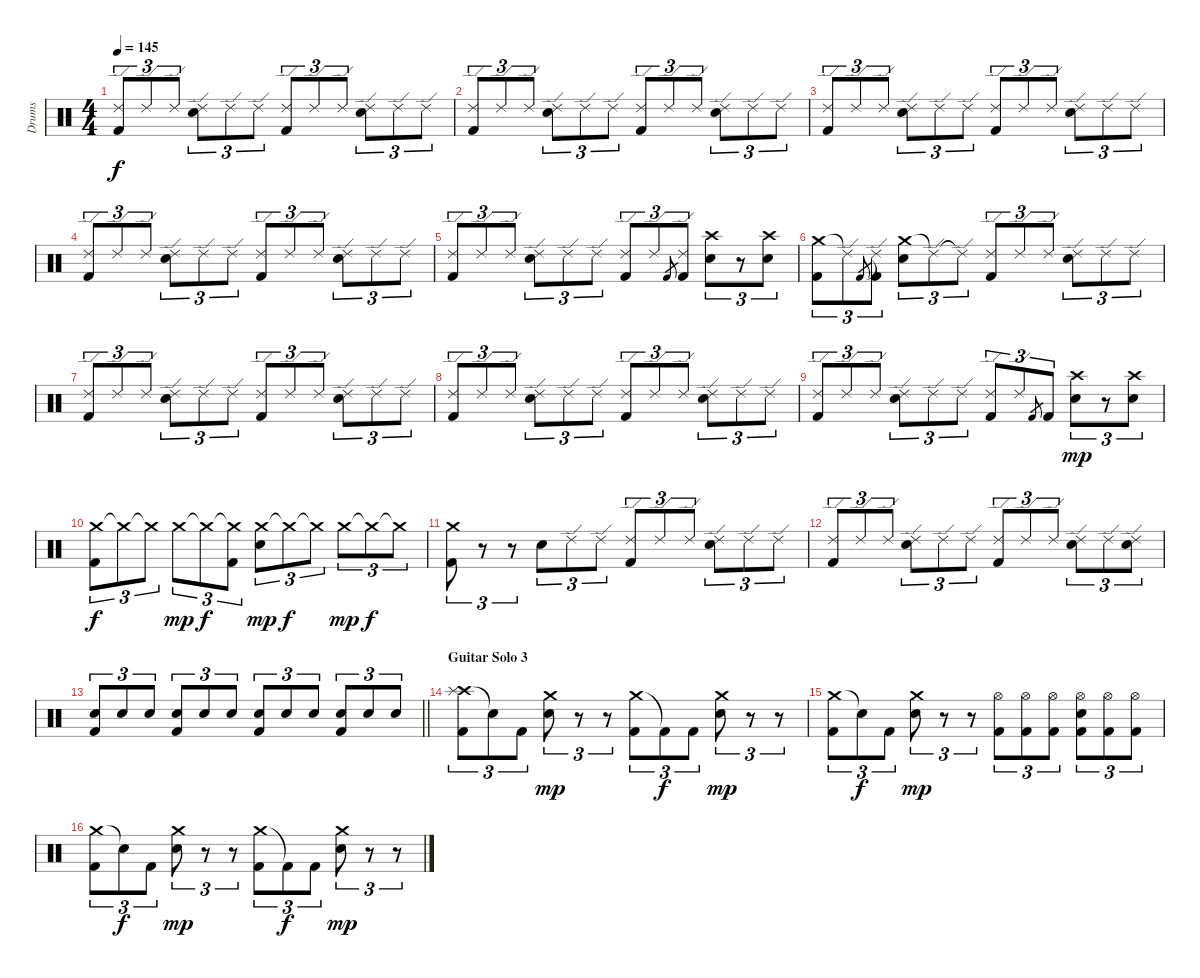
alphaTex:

\track ("Drums" "Drums") {instrument percussion}
\staff {score}
\articulation defaults
\ts (4 4)
\tempo 145
\clef neutral
\ks c
("Ride (edge) 2" "Kick (hit) 2").8{tu (3 2) dy f} "Ride (edge) 2".8{tu (3 2)} "Ride (edge) 2".8{tu (3 2)} ("Ride (edge) 2" "Snare (hit) 2").8{tu (3 2)} "Ride (edge) 2".8{tu (3 2)} "Ride (edge) 2".8{tu (3 2)} ("Ride (edge) 2" "Kick (hit) 2").8{tu (3 2)} "Ride (edge) 2".8{tu (3 2)} "Ride (edge) 2".8{tu (3 2)} ("Ride (edge) 2" "Snare (hit) 2").8{tu (3 2)} "Ride (edge) 2".8{tu (3 2)} "Ride (edge) 2".8{tu (3 2)} |
("Ride (edge) 2" "Kick (hit) 2").8{tu (3 2)} "Ride (edge) 2".8{tu (3 2)} "Ride (edge) 2".8{tu (3 2)} ("Ride (edge) 2" "Snare (hit) 2").8{tu (3 2)} "Ride (edge) 2".8{tu (3 2)} "Ride (edge) 2".8{tu (3 2)} ("Ride (edge) 2" "Kick (hit) 2").8{tu (3 2)} "Ride (edge) 2".8{tu (3 2)} "Ride (edge) 2".8{tu (3 2)} ("Ride (edge) 2" "Snare (hit) 2").8{tu (3 2)} "Ride (edge) 2".8{tu (3 2)} "Ride (edge) 2".8{tu (3 2)} |
("Ride (edge) 2" "Kick (hit) 2").8{tu (3 2)} "Ride (edge) 2".8{tu (3 2)} "Ride (edge) 2".8{tu (3 2)} ("Ride (edge) 2" "Snare (hit) 2").8{tu (3 2)} "Ride (edge) 2".8{tu (3 2)} "Ride (edge) 2".8{tu (3 2)} ("Ride (edge) 2" "Kick (hit) 2").8{tu (3 2)} "Ride (edge) 2".8{tu (3 2)} "Ride (edge) 2".8{tu (3 2)} ("Ride (edge) 2" "Snare (hit) 2").8{tu (3 2)} "Ride (edge) 2".8{tu (3 2)} "Ride (edge) 2".8{tu (3 2)} |
("Ride (edge) 2" "Kick (hit) 2").8{tu (3 2)} "Ride (edge) 2".8{tu (3 2)} "Ride (edge) 2".8{tu (3 2)} ("Ride (edge) 2" "Snare (hit) 2").8{tu (3 2)} "Ride (edge) 2".8{tu (3 2)} "Ride (edge) 2".8{tu (3 2)} ("Ride (edge) 2" "Kick (hit) 2").8{tu (3 2)} "Ride (edge) 2".8{tu (3 2)} "Ride (edge) 2".8{tu (3 2)} ("Ride (edge) 2" "Snare (hit) 2").8{tu (3 2)} "Ride (edge) 2".8{tu (3 2)} "Ride (edge) 2".8{tu (3 2)} |
("Ride (edge) 2" "Kick (hit) 2").8{tu (3 2)} "Ride (edge) 2".8{tu (3 2)} "Ride (edge) 2".8{tu (3 2)} ("Ride (edge) 2" "Snare (hit) 2").8{tu (3 2)} "Ride (edge) 2".8{tu (3 2)} "Ride (edge) 2".8{tu (3 2)} ("Ride (edge) 2" "Kick (hit) 2").8{tu (3 2)} "Ride (edge) 2".8{tu (3 2)} "Kick (hit) 2".8{gr} ("Ride (edge) 2" "Kick (hit) 2").8{tu (3 2)} ("Crash high (hit)" "Snare (hit) 2").8{tu (3 2)} r.8{tu (3 2)} ("Crash high (hit)" "Snare (hit) 2").8{tu (3 2)} |
("Crash medium (hit)" "Kick (hit) 2").8{tu (3 2)} "Ride (edge) 2"{t}.8{tu (3 2)} "Kick (hit) 2".8{gr} ("Ride (edge) 2"{t} "Kick (hit) 2").8{tu (3 2)} ("Crash medium (hit)" "Snare (hit) 2").8{tu (3 2)} "Ride (edge) 2"{t}.8{tu (3 2)} "Ride (edge) 2"{t}.8{tu (3 2)} ("Ride (edge) 2" "Kick (hit) 2").8{tu (3 2)} "Ride (edge) 2".8{tu (3 2)} "Ride (edge) 2".8{tu (3 2)} ("Ride (edge) 2" "Snare (hit) 2").8{tu (3 2)} "Ride (edge) 2".8{tu (3 2)} "Ride (edge) 2".8{tu (3 2)} |
("Ride (edge) 2" "Kick (hit) 2").8{tu (3 2)} "Ride (edge) 2".8{tu (3 2)} "Ride (edge) 2".8{tu (3 2)} ("Ride (edge) 2" "Snare (hit) 2").8{tu (3 2)} "Ride (edge) 2".8{tu (3 2)} "Ride (edge) 2".8{tu (3 2)} ("Ride (edge) 2" "Kick (hit) 2").8{tu (3 2)} "Ride (edge) 2".8{tu (3 2)} "Ride (edge) 2".8{tu (3 2)} ("Ride (edge) 2" "Snare (hit) 2").8{tu (3 2)} "Ride (edge) 2".8{tu (3 2)} "Ride (edge) 2".8{tu (3 2)} |
("Ride (edge) 2" "Kick (hit) 2").8{tu (3 2)} "Ride (edge) 2".8{tu (3 2)} "Ride (edge) 2".8{tu (3 2)} ("Ride (edge) 2" "Snare (hit) 2").8{tu (3 2)} "Ride (edge) 2".8{tu (3 2)} "Ride (edge) 2".8{tu (3 2)} ("Ride (edge) 2" "Kick (hit) 2").8{tu (3 2)} "Ride (edge) 2".8{tu (3 2)} "Ride (edge) 2".8{tu (3 2)} ("Ride (edge) 2" "Snare (hit) 2").8{tu (3 2)} "Ride (edge) 2".8{tu (3 2)} "Ride (edge) 2".8{tu (3 2)} |
("Ride (edge) 2" "Kick (hit) 2").8{tu (3 2)} "Ride (edge) 2".8{tu (3 2)} "Ride (edge) 2".8{tu (3 2)} ("Ride (edge) 2" "Snare (hit) 2").8{tu (3 2)} "Ride (edge) 2".8{tu (3 2)} "Ride (edge) 2".8{tu (3 2)} ("Ride (edge) 2" "Kick (hit) 2").8{tu (3 2)} "Ride (edge) 2".8{tu (3 2)} "Kick (hit) 2".8{gr} "Kick (hit) 2".8{tu (3 2)} ("Crash high (hit)" "Snare (hit) 2").8{tu (3 2) dy mp} r.8{tu (3 2)} ("Crash high (hit)" "Snare (hit) 2").8{tu (3 2)} |
("Crash medium (hit)" "Kick (hit) 2").8{tu (3 2) dy f} "Crash medium (hit)"{t}.8{tu (3 2)} "Crash medium (hit)"{t}.8{tu (3 2)} "Crash medium (hit)".8{tu (3 2) dy mp} "Crash medium (hit)"{t}.8{tu (3 2) dy f} ("Crash medium (hit)"{t} "Kick (hit) 2").8{tu (3 2)} ("Crash medium (hit)" "Snare (hit) 2").8{tu (3 2) dy mp} "Crash medium (hit)"{t}.8{tu (3 2) dy f} "Crash medium (hit)"{t}.8{tu (3 2)} "Crash medium (hit)".8{tu (3 2) dy mp} "Crash medium (hit)"{t}.8{tu (3 2) dy f} "Crash medium (hit)"{t}.8{tu (3 2)} |
("Crash medium (hit)" "Kick (hit) 2").8{tu (3 2)} r.8{tu (3 2)} r.8{tu (3 2)} "Snare (hit) 2".8{tu (3 2)} "Ride (edge) 2".8{tu (3 2)} "Ride (edge) 2".8{tu (3 2)} ("Ride (edge) 2" "Kick (hit) 2").8{tu (3 2)} "Ride (edge) 2".8{tu (3 2)} "Ride (edge) 2".8{tu (3 2)} ("Ride (edge) 2" "Snare (hit) 2").8{tu (3 2)} "Ride (edge) 2".8{tu (3 2)} "Ride (edge) 2".8{tu (3 2)} |
("Ride (edge) 2" "Kick (hit) 2").8{tu (3 2)} "Ride (edge) 2".8{tu (3 2)} "Ride (edge) 2".8{tu (3 2)} ("Ride (edge) 2" "Snare (hit) 2").8{tu (3 2)} "Ride (edge) 2".8{tu (3 2)} "Ride (edge) 2".8{tu (3 2)} ("Ride (edge) 2" "Kick (hit) 2").8{tu (3 2)} "Ride (edge) 2".8{tu (3 2)} "Ride (edge) 2".8{tu (3 2)} ("Ride (edge) 2" "Snare (hit) 2").8{tu (3 2)} "Ride (edge) 2".8{tu (3 2)} ("Ride (edge) 2" "Snare (hit) 2").8{tu (3 2)} |
\barLineRight lightlight
("Snare (hit) 2" "Kick (hit) 2").8{tu (3 2)} "Snare (hit) 2".8{tu (3 2)} "Snare (hit) 2".8{tu (3 2)} ("Snare (hit) 2" "Kick (hit) 2").8{tu (3 2)} "Snare (hit) 2".8{tu (3 2)} "Snare (hit) 2".8{tu (3 2)} ("Snare (hit) 2" "Kick (hit) 2").8{tu (3 2)} "Snare (hit) 2".8{tu (3 2)} "Snare (hit) 2".8{tu (3 2)} ("Snare (hit) 2" "Kick (hit) 2").8{tu (3 2)} "Snare (hit) 2".8{tu (3 2)} "Snare (hit) 2".8{tu (3 2)} |
\section ("" "Guitar Solo 3")
("Crash high (hit)" "Splash (hit)" "Kick (hit) 2").8{tu (3 2)} "Snare (hit)"{t}.8{tu (3 2)} "Kick (hit) 2".8{tu (3 2)} ("Crash medium (hit)" "Snare (hit) 2").8{tu (3 2) dy mp} r.8{tu (3 2)} r.8{tu (3 2)} ("Crash medium (hit)" "Kick (hit) 2").8{tu (3 2)} "Kick (hit) 2"{t}.8{tu (3 2) dy f} "Kick (hit) 2".8{tu (3 2)} ("Crash medium (hit)" "Snare (hit) 2").8{tu (3 2) dy mp} r.8{tu (3 2)} r.8{tu (3 2)} |
("Crash medium (hit)" "Kick (hit) 2").8{tu (3 2)} "Snare (hit)"{t}.8{tu (3 2) dy f} "Kick (hit) 2".8{tu (3 2)} ("Crash medium (hit)" "Snare (hit) 2").8{tu (3 2) dy mp} r.8{tu (3 2)} r.8{tu (3 2)} ("Hi-Hat (open)" "Kick (hit) 2").8{tu (3 2)} ("Hi-Hat (open)" "Kick (hit) 2").8{tu (3 2)} ("Hi-Hat (open)" "Kick (hit) 2").8{tu (3 2)} ("Hi-Hat (open)" "Snare (hit) 2" "Kick (hit) 2").8{tu (3 2)} ("Hi-Hat (open)" "Kick (hit) 2").8{tu (3 2)} ("Hi-Hat (open)" "Kick (hit) 2").8{tu (3 2)} |
("Crash medium (hit)" "Kick (hit) 2").8{tu (3 2)} "Snare (hit)"{t}.8{tu (3 2) dy f} "Kick (hit) 2".8{tu (3 2)} ("Crash medium (hit)" "Snare (hit) 2").8{tu (3 2) dy mp} r.8{tu (3 2)} r.8{tu (3 2)} ("Crash medium (hit)" "Kick (hit) 2").8{tu (3 2)} "Kick (hit) 2"{t}.8{tu (3 2) dy f} "Kick (hit) 2".8{tu (3 2)} ("Crash medium (hit)" "Snare (hit) 2").8{tu (3 2) dy mp} r.8{tu (3 2)} r.8{tu (3 2)}
